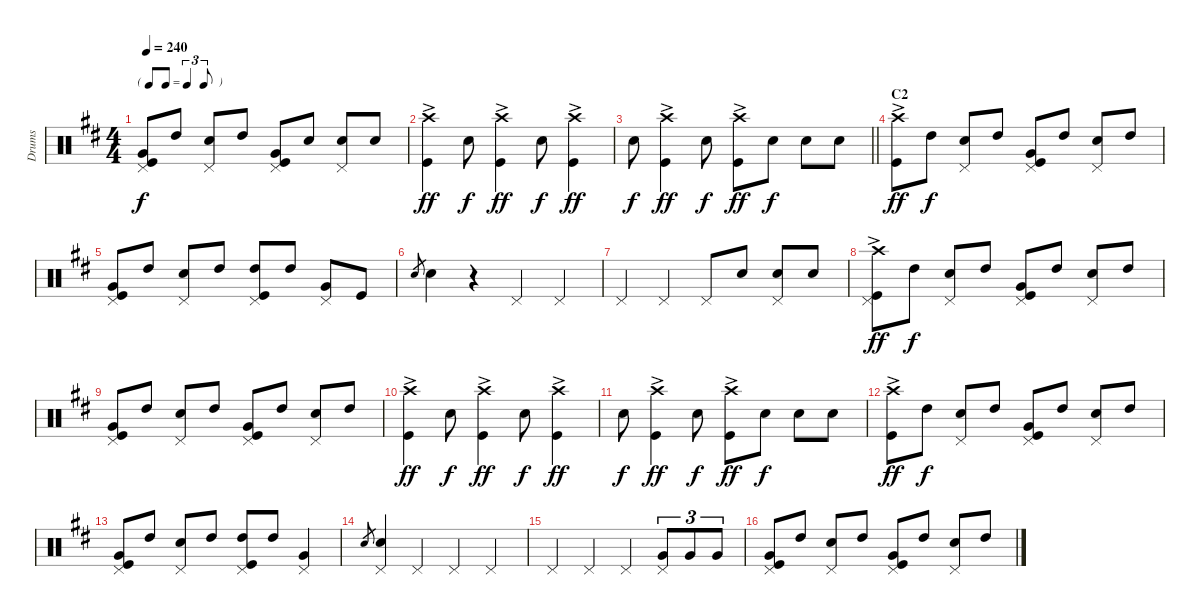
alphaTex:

\track ("Drums" "Drums") {instrument percussion}
\staff {score}
\articulation defaults
\ts (4 4)
\tf triplet8th
\tempo 240
\clef neutral
\ks d
("Very Low Tom (hit)" "Kick (hit)" "Pedal Hi-Hat (hit)").8{dy f} "High Tom (hit)".8 ("Pedal Hi-Hat (hit)" "Snare (hit) 2").8 "High Tom (hit)".8 ("Pedal Hi-Hat (hit)" "Kick (hit)" "Very Low Tom (hit)").8 "Snare (hit) 2".8 ("Pedal Hi-Hat (hit)" "Snare (hit) 2").8 "Snare (hit) 2".8 |
("Crash high (hit)"{ac} "Kick (hit)").4{dy ff} "Snare (hit) 2".8{dy f} ("Kick (hit)" "Crash high (hit)"{ac}).4{dy ff} "Snare (hit) 2".8{dy f} ("Crash high (hit)"{ac} "Kick (hit)").4{dy ff} |
\barLineRight lightlight "Snare (hit) 2".8{dy f}
("Crash high (hit)"{ac} "Kick (hit)").4{dy ff} "Snare (hit) 2".8{dy f} ("Kick (hit)" "Crash high (hit)"{ac}).8{dy ff} "Snare (hit) 2".8{dy f} "Snare (hit) 2".8 "Snare (hit) 2".8 |
\section ("" "C2")
("Crash high (hit)"{ac} "Kick (hit)").8{dy ff} "High Tom (hit)".8{dy f} ("Snare (hit) 2" "Pedal Hi-Hat (hit)").8 "High Tom (hit)".8 ("Very Low Tom (hit)" "Kick (hit)" "Pedal Hi-Hat (hit)").8 "High Tom (hit)".8 ("Snare (hit) 2" "Pedal Hi-Hat (hit)").8 "High Tom (hit)".8 |
("Very Low Tom (hit)" "Kick (hit)" "Pedal Hi-Hat (hit)").8 "High Tom (hit)".8 ("Snare (hit) 2" "Pedal Hi-Hat (hit)").8 "High Tom (hit)".8 ("High Tom (hit)" "Kick (hit)" "Pedal Hi-Hat (hit)").8 "High Tom (hit)".8 ("Very Low Tom (hit)" "Pedal Hi-Hat (hit)").8 "Kick (hit)".8 |
"Snare (hit) 2".8{gr} "Snare (hit) 2".4 r.4 "Pedal Hi-Hat (hit)".4 "Pedal Hi-Hat (hit)".4 |
"Pedal Hi-Hat (hit)".4 "Pedal Hi-Hat (hit)".4 "Pedal Hi-Hat (hit)".8 "Snare (hit) 2".8 ("Snare (hit) 2" "Pedal Hi-Hat (hit)").8 "Snare (hit) 2".8 |
("Crash high (hit)"{ac} "Kick (hit)" "Pedal Hi-Hat (hit)").8{dy ff} "High Tom (hit)".8{dy f} ("Snare (hit) 2" "Pedal Hi-Hat (hit)").8 "High Tom (hit)".8 ("Very Low Tom (hit)" "Kick (hit)" "Pedal Hi-Hat (hit)").8 "High Tom (hit)".8 ("Snare (hit) 2" "Pedal Hi-Hat (hit)").8 "High Tom (hit)".8 |
("Very Low Tom (hit)" "Kick (hit)" "Pedal Hi-Hat (hit)").8 "High Tom (hit)".8 ("Snare (hit) 2" "Pedal Hi-Hat (hit)").8 "High Tom (hit)".8 ("Very Low Tom (hit)" "Kick (hit)" "Pedal Hi-Hat (hit)").8 "High Tom (hit)".8 ("Snare (hit) 2" "Pedal Hi-Hat (hit)").8 "High Tom (hit)".8 |
("Kick (hit)" "Crash high (hit)"{ac}).4{dy ff} "Snare (hit) 2".8{dy f} ("Crash high (hit)"{ac} "Kick (hit)").4{dy ff} "Snare (hit) 2".8{dy f} ("Kick (hit)" "Crash high (hit)"{ac}).4{dy ff} |
"Snare (hit) 2".8{dy f} ("Kick (hit)" "Crash high (hit)"{ac}).4{dy ff} "Snare (hit) 2".8{dy f} ("Crash high (hit)"{ac} "Kick (hit)").8{dy ff} "Snare (hit) 2".8{dy f} "Snare (hit) 2".8 "Snare (hit) 2".8 |
("Crash high (hit)"{ac} "Kick (hit)").8{dy ff} "High Tom (hit)".8{dy f} ("Snare (hit) 2" "Pedal Hi-Hat (hit)").8 "High Tom (hit)".8 ("Pedal Hi-Hat (hit)" "Kick (hit)" "Very Low Tom (hit)").8 "High Tom (hit)".8 ("Snare (hit) 2" "Pedal Hi-Hat (hit)").8 "High Tom (hit)".8 |
("Very Low Tom (hit)" "Kick (hit)" "Pedal Hi-Hat (hit)").8 "High Tom (hit)".8 ("Pedal Hi-Hat (hit)" "Snare (hit) 2").8 "High Tom (hit)".8 ("Kick (hit)" "Pedal Hi-Hat (hit)" "High Tom (hit)").8 "High Tom (hit)".8 ("Pedal Hi-Hat (hit)" "Very Low Tom (hit)").4 |
"Snare (hit) 2".8{gr} ("Snare (hit) 2" "Pedal Hi-Hat (hit)").4 "Pedal Hi-Hat (hit)".4 "Pedal Hi-Hat (hit)".4 "Pedal Hi-Hat (hit)".4 |
"Pedal Hi-Hat (hit)".4 "Pedal Hi-Hat (hit)".4 "Pedal Hi-Hat (hit)".4 ("Pedal Hi-Hat (hit)" "Very Low Tom (hit)").8{tu (3 2)} "Very Low Tom (hit)".8{tu (3 2)} "Very Low Tom (hit)".8{tu (3 2)} |
("Very Low Tom (hit)" "Pedal Hi-Hat (hit)" "Kick (hit)").8 "High Tom (hit)".8 ("Snare (hit) 2" "Pedal Hi-Hat (hit)").8 "High Tom (hit)".8 ("Kick (hit)" "Pedal Hi-Hat (hit)" "Very Low Tom (hit)").8 "High Tom (hit)".8 ("Pedal Hi-Hat (hit)" "Snare (hit) 2").8 "High Tom (hit)".8
